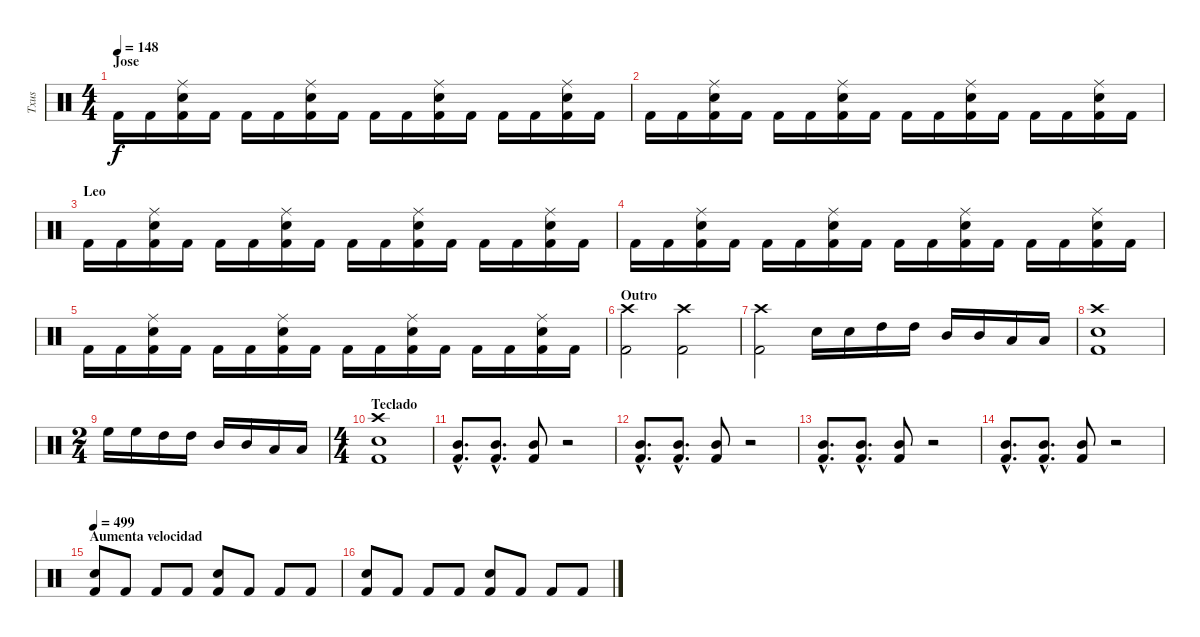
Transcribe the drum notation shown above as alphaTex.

\track ("Txus" "Txus") {instrument percussion}
\staff {score}
\articulation defaults
\ts (4 4)
\section ("" "Jose")
\tempo 148
\clef neutral
\ks c "Kick (hit) 2".16{dy f} "Kick (hit) 2".16
("Kick (hit) 2" "Electric Snare (hit)" "Ride (middle)").16 "Kick (hit) 2".16 "Kick (hit) 2".16 "Kick (hit) 2".16 ("Kick (hit) 2" "Electric Snare (hit)" "Ride (middle)").16 "Kick (hit) 2".16 "Kick (hit) 2".16 "Kick (hit) 2".16 ("Kick (hit) 2" "Electric Snare (hit)" "Ride (middle)").16 "Kick (hit) 2".16 "Kick (hit) 2".16 "Kick (hit) 2".16 ("Kick (hit) 2" "Electric Snare (hit)" "Ride (middle)").16 "Kick (hit) 2".16 |
"Kick (hit) 2".16 "Kick (hit) 2".16 ("Kick (hit) 2" "Electric Snare (hit)" "Ride (middle)").16 "Kick (hit) 2".16 "Kick (hit) 2".16 "Kick (hit) 2".16 ("Kick (hit) 2" "Electric Snare (hit)" "Ride (middle)").16 "Kick (hit) 2".16 "Kick (hit) 2".16 "Kick (hit) 2".16 ("Kick (hit) 2" "Electric Snare (hit)" "Ride (middle)").16 "Kick (hit) 2".16 "Kick (hit) 2".16 "Kick (hit) 2".16 ("Kick (hit) 2" "Electric Snare (hit)" "Ride (middle)").16 "Kick (hit) 2".16 |
\section ("" "Leo")
"Kick (hit) 2".16 "Kick (hit) 2".16 ("Kick (hit) 2" "Electric Snare (hit)" "Ride (middle)").16 "Kick (hit) 2".16 "Kick (hit) 2".16 "Kick (hit) 2".16 ("Kick (hit) 2" "Electric Snare (hit)" "Ride (middle)").16 "Kick (hit) 2".16 "Kick (hit) 2".16 "Kick (hit) 2".16 ("Kick (hit) 2" "Electric Snare (hit)" "Ride (middle)").16 "Kick (hit) 2".16 "Kick (hit) 2".16 "Kick (hit) 2".16 ("Kick (hit) 2" "Electric Snare (hit)" "Ride (middle)").16 "Kick (hit) 2".16 |
"Kick (hit) 2".16 "Kick (hit) 2".16 ("Kick (hit) 2" "Electric Snare (hit)" "Ride (middle)").16 "Kick (hit) 2".16 "Kick (hit) 2".16 "Kick (hit) 2".16 ("Kick (hit) 2" "Electric Snare (hit)" "Ride (middle)").16 "Kick (hit) 2".16 "Kick (hit) 2".16 "Kick (hit) 2".16 ("Kick (hit) 2" "Electric Snare (hit)" "Ride (middle)").16 "Kick (hit) 2".16 "Kick (hit) 2".16 "Kick (hit) 2".16 ("Kick (hit) 2" "Electric Snare (hit)" "Ride (middle)").16 "Kick (hit) 2".16 |
"Kick (hit) 2".16 "Kick (hit) 2".16 ("Kick (hit) 2" "Electric Snare (hit)" "Ride (middle)").16 "Kick (hit) 2".16 "Kick (hit) 2".16 "Kick (hit) 2".16 ("Kick (hit) 2" "Electric Snare (hit)" "Ride (middle)").16 "Kick (hit) 2".16 "Kick (hit) 2".16 "Kick (hit) 2".16 ("Kick (hit) 2" "Electric Snare (hit)" "Ride (middle)").16 "Kick (hit) 2".16 "Kick (hit) 2".16 "Kick (hit) 2".16 ("Kick (hit) 2" "Electric Snare (hit)" "Ride (middle)").16 "Kick (hit) 2".16 |
\section ("" "Outro")
("Kick (hit) 2" "Crash high (hit)").2 ("Kick (hit) 2" "Crash high (hit)").2 |
("Kick (hit) 2" "Crash high (hit)").2 "Electric Snare (hit)".16 "Electric Snare (hit)".16 "High Tom (hit)".16 "High Tom (hit)".16 "Mid Tom (hit)".16 "Mid Tom (hit)".16 "Low Tom (hit)".16 "Low Tom (hit)".16 |
("Kick (hit) 2" "Electric Snare (hit)" "Crash high (hit)").1 |
\ts (2 4)
"High Floor Tom (hit)".16 "High Floor Tom (hit)".16 "High Tom (hit)".16 "High Tom (hit)".16 "Mid Tom (hit)".16 "Mid Tom (hit)".16 "Low Tom (hit)".16 "Low Tom (hit)".16 |
\ts (4 4)
\section ("" "Teclado")
("Kick (hit) 2" "Crash high (hit)" "Electric Snare (hit)").1 |
("Kick (hit) 2"{hac} "Mid Tom (hit)"{hac}).8{d} ("Kick (hit) 2"{hac} "Mid Tom (hit)"{hac}).8{d} ("Kick (hit) 2" "Mid Tom (hit)").8 r.2 |
("Kick (hit) 2"{hac} "Mid Tom (hit)"{hac}).8{d} ("Kick (hit) 2"{hac} "Mid Tom (hit)"{hac}).8{d} ("Kick (hit) 2" "Mid Tom (hit)").8 r.2 |
("Kick (hit) 2"{hac} "Mid Tom (hit)"{hac}).8{d} ("Kick (hit) 2"{hac} "Mid Tom (hit)"{hac}).8{d} ("Kick (hit) 2" "Mid Tom (hit)").8 r.2 |
("Kick (hit) 2"{hac} "Mid Tom (hit)"{hac}).8{d} ("Kick (hit) 2"{hac} "Mid Tom (hit)"{hac}).8{d} ("Kick (hit) 2" "Mid Tom (hit)").8 r.2 |
\section ("" "Aumenta velocidad")
\tempo 499
("Kick (hit) 2" "Electric Snare (hit)").8 "Kick (hit) 2".8 "Kick (hit) 2".8 "Kick (hit) 2".8 ("Kick (hit) 2" "Electric Snare (hit)").8 "Kick (hit) 2".8 "Kick (hit) 2".8 "Kick (hit) 2".8 |
("Kick (hit) 2" "Electric Snare (hit)").8 "Kick (hit) 2".8 "Kick (hit) 2".8 "Kick (hit) 2".8 ("Kick (hit) 2" "Electric Snare (hit)").8 "Kick (hit) 2".8 "Kick (hit) 2".8 "Kick (hit) 2".8
